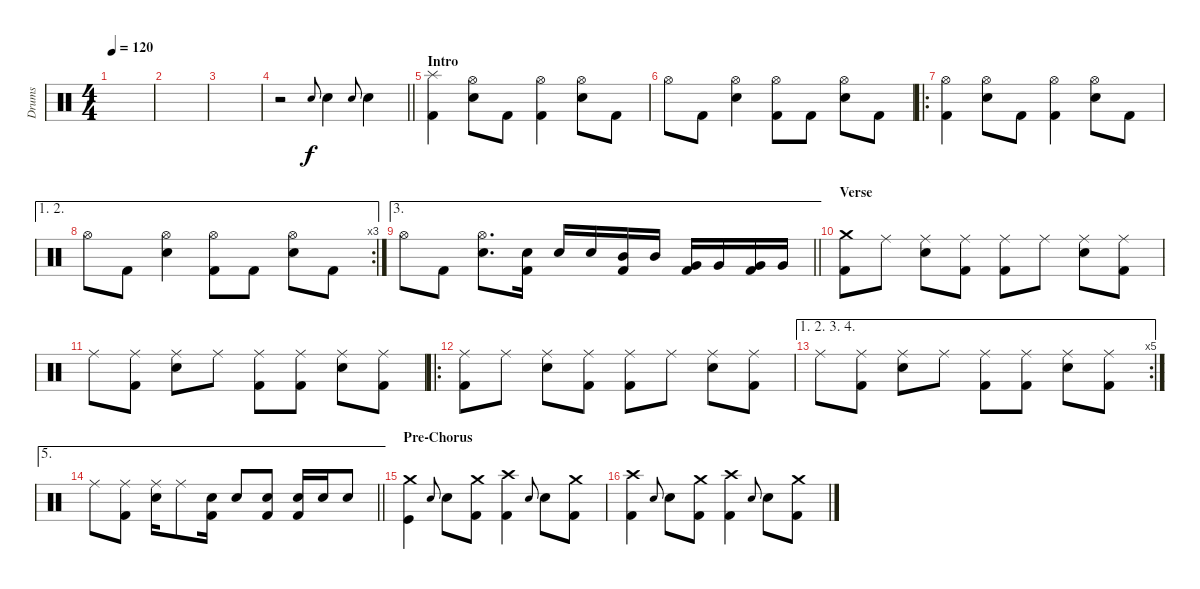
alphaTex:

\track ("Drums" "Drums") {instrument percussion}
\staff {score}
\articulation defaults
\ts (4 4)
\tempo 120
\clef neutral
\ks c
|
|
|
\barLineRight lightlight
r.2 "Snare (hit) 2".8{gr onbeat} "Snare (hit) 2".4 "Snare (hit) 2".8{gr onbeat} "Snare (hit) 2".4 |
\section ("" "Intro")
("Splash (hit)" "Kick (hit) 2").4 ("Hi-Hat (open)" "Snare (hit) 2").8 "Kick (hit) 2".8 ("Hi-Hat (open)" "Kick (hit) 2").4 ("Hi-Hat (open)" "Snare (hit) 2").8 "Kick (hit) 2".8 |
"Hi-Hat (open)".8 "Kick (hit) 2".8 ("Hi-Hat (open)" "Snare (hit) 2").4 ("Hi-Hat (open)" "Kick (hit) 2").8 "Kick (hit) 2".8 ("Hi-Hat (open)" "Snare (hit) 2").8 "Kick (hit) 2".8 |
\ro
("Hi-Hat (open)" "Kick (hit) 2").4 ("Hi-Hat (open)" "Snare (hit) 2").8 "Kick (hit) 2".8 ("Hi-Hat (open)" "Kick (hit) 2").4 ("Hi-Hat (open)" "Snare (hit) 2").8 "Kick (hit) 2".8 |
\ae (1 2)
\rc 3 "Hi-Hat (open)".8 "Kick (hit) 2".8
("Hi-Hat (open)" "Snare (hit) 2").4 ("Hi-Hat (open)" "Kick (hit) 2").8 "Kick (hit) 2".8 ("Hi-Hat (open)" "Snare (hit) 2").8 "Kick (hit) 2".8 |
\ae 3
\barLineRight lightlight "Hi-Hat (open)".8 "Kick (hit) 2".8
("Hi-Hat (open)" "Snare (hit) 2").8{d} ("Snare (hit) 2" "Kick (hit) 2").16 "Snare (hit) 2".16 "Snare (hit) 2".16 ("Mid Tom (hit)" "Kick (hit) 2").16 "Mid Tom (hit)".16 ("Very Low Tom (hit)" "Kick (hit) 2").16 "Very Low Tom (hit)".16 ("Very Low Tom (hit)" "Kick (hit) 2").16 "Very Low Tom (hit)".16 |
\section ("" "Verse")
("Crash medium (hit)" "Kick (hit) 2").8 "Ride (middle)".8 ("Ride (middle)" "Snare (hit) 2").8 ("Ride (middle)" "Kick (hit) 2").8 ("Ride (middle)" "Kick (hit) 2").8 "Ride (middle)".8 ("Ride (middle)" "Snare (hit) 2").8 ("Ride (middle)" "Kick (hit) 2").8 |
"Ride (middle)".8 ("Ride (middle)" "Kick (hit) 2").8 ("Ride (middle)" "Snare (hit) 2").8 "Ride (middle)".8 ("Ride (middle)" "Kick (hit) 2").8 ("Ride (middle)" "Kick (hit) 2").8 ("Ride (middle)" "Snare (hit) 2").8 ("Ride (middle)" "Kick (hit) 2").8 |
\ro
("Ride (middle)" "Kick (hit) 2").8 "Ride (middle)".8 ("Ride (middle)" "Snare (hit) 2").8 ("Ride (middle)" "Kick (hit) 2").8 ("Ride (middle)" "Kick (hit) 2").8 "Ride (middle)".8 ("Ride (middle)" "Snare (hit) 2").8 ("Ride (middle)" "Kick (hit) 2").8 |
\ae (1 2 3 4)
\rc 5 "Ride (middle)".8
("Ride (middle)" "Kick (hit) 2").8 ("Ride (middle)" "Snare (hit) 2").8 "Ride (middle)".8 ("Ride (middle)" "Kick (hit) 2").8 ("Ride (middle)" "Kick (hit) 2").8 ("Ride (middle)" "Snare (hit) 2").8 ("Ride (middle)" "Kick (hit) 2").8 |
\ae 5
\barLineRight lightlight "Ride (middle)".8
("Ride (middle)" "Kick (hit) 2").8 ("Ride (middle)" "Snare (hit) 2").16 "Ride (middle)".8 ("Snare (hit) 2" "Kick (hit) 2").16 "Snare (hit) 2".8 ("Snare (hit) 2" "Kick (hit) 2").8 ("Snare (hit) 2" "Kick (hit) 2").16 "Snare (hit) 2".16 "Snare (hit) 2".8 |
\section ("" "Pre-Chorus")
("Crash medium (hit)" "Kick (hit)").4 "Snare (hit) 2".8{gr onbeat} "Snare (hit) 2".8 ("Crash medium (hit)" "Kick (hit) 2").8 ("Crash high (hit)" "Kick (hit) 2").4 "Snare (hit) 2".8{gr onbeat} "Snare (hit) 2".8 ("Crash medium (hit)" "Kick (hit) 2").8 |
("Crash high (hit)" "Kick (hit) 2").4 "Snare (hit) 2".8{gr onbeat} "Snare (hit) 2".8 ("Crash medium (hit)" "Kick (hit) 2").8 ("Crash high (hit)" "Kick (hit) 2").4 "Snare (hit) 2".8{gr onbeat} "Snare (hit) 2".8 ("Crash medium (hit)" "Kick (hit) 2").8
